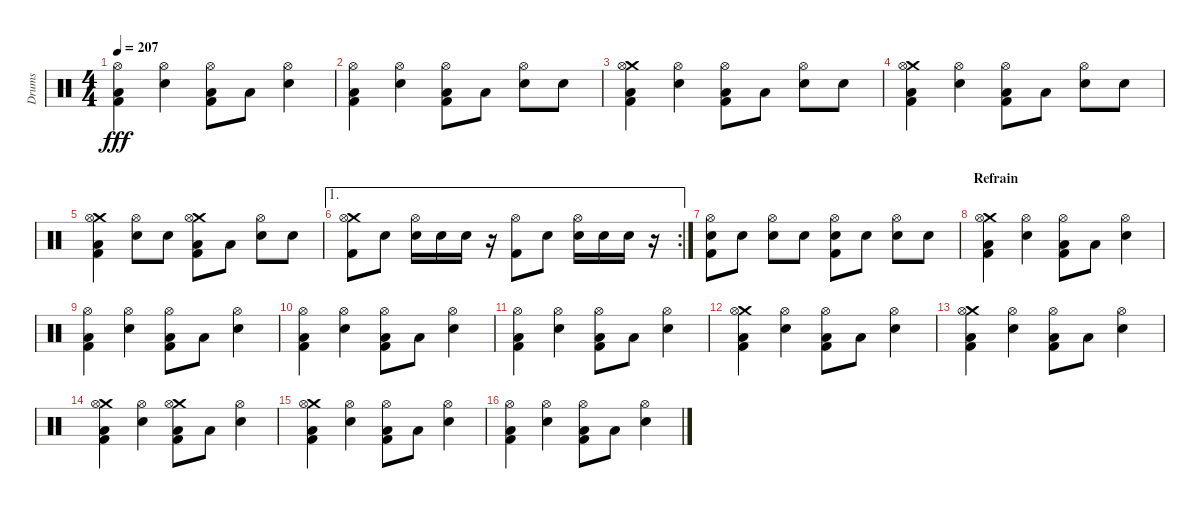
\track ("Drums" "Drums") {instrument percussion}
\staff {score}
\articulation defaults
\ts (4 4)
\tempo 207
\clef neutral
\ks c
("Hi-Hat (open)" "Low Floor Tom (hit)" "Kick (hit) 2").4{dy fff} ("Hi-Hat (open)" "Snare (hit) 2").4 ("Hi-Hat (open)" "Low Floor Tom (hit)" "Kick (hit) 2").8 "Low Floor Tom (hit)".8 ("Hi-Hat (open)" "Snare (hit) 2").4 |
("Hi-Hat (open)" "Low Floor Tom (hit)" "Kick (hit) 2").4 ("Hi-Hat (open)" "Snare (hit) 2").4 ("Hi-Hat (open)" "Low Floor Tom (hit)" "Kick (hit) 2").8 "Low Floor Tom (hit)".8 ("Hi-Hat (open)" "Snare (hit) 2").8 "Snare (hit) 2".8 |
("Crash medium (hit)" "Hi-Hat (open)" "Low Floor Tom (hit)" "Kick (hit) 2").4 ("Hi-Hat (open)" "Snare (hit) 2").4 ("Hi-Hat (open)" "Low Floor Tom (hit)" "Kick (hit) 2").8 "Low Floor Tom (hit)".8 ("Hi-Hat (open)" "Snare (hit) 2").8 "Snare (hit) 2".8 |
("Crash medium (hit)" "Hi-Hat (open)" "Low Floor Tom (hit)" "Kick (hit) 2").4 ("Hi-Hat (open)" "Snare (hit) 2").4 ("Hi-Hat (open)" "Low Floor Tom (hit)" "Kick (hit) 2").8 "Low Floor Tom (hit)".8 ("Hi-Hat (open)" "Snare (hit) 2").8 "Snare (hit) 2".8 |
("Crash medium (hit)" "Hi-Hat (open)" "Low Floor Tom (hit)" "Kick (hit) 2").4 ("Hi-Hat (open)" "Snare (hit) 2").8 "Snare (hit) 2".8 ("Crash medium (hit)" "Hi-Hat (open)" "Low Floor Tom (hit)" "Kick (hit) 2").8 "Low Floor Tom (hit)".8 ("Hi-Hat (open)" "Snare (hit) 2").8 "Snare (hit) 2".8 |
\ae 1
\rc 2
("Crash medium (hit)" "Hi-Hat (open)" "Kick (hit) 2").8 "Snare (hit) 2".8 ("Hi-Hat (open)" "Snare (hit) 2").16 "Snare (hit) 2".16 "Snare (hit) 2".16 r.16 ("Hi-Hat (open)" "Kick (hit) 2").8 "Snare (hit) 2".8 ("Hi-Hat (open)" "Snare (hit) 2").16 "Snare (hit) 2".16 "Snare (hit) 2".16 r.16 |
("Hi-Hat (open)" "Snare (hit) 2" "Kick (hit) 2").8 "Snare (hit) 2".8 ("Hi-Hat (open)" "Snare (hit) 2").8 "Snare (hit) 2".8 ("Hi-Hat (open)" "Snare (hit) 2" "Kick (hit) 2").8 "Snare (hit) 2".8 ("Hi-Hat (open)" "Snare (hit) 2").8 "Snare (hit) 2".8 |
\section ("" "Refrain")
("Crash medium (hit)" "Hi-Hat (open)" "Low Floor Tom (hit)" "Kick (hit) 2").4 ("Hi-Hat (open)" "Snare (hit) 2").4 ("Hi-Hat (open)" "Low Floor Tom (hit)" "Kick (hit) 2").8 "Low Floor Tom (hit)".8 ("Hi-Hat (open)" "Snare (hit) 2").4 |
("Hi-Hat (open)" "Low Floor Tom (hit)" "Kick (hit) 2").4 ("Hi-Hat (open)" "Snare (hit) 2").4 ("Hi-Hat (open)" "Low Floor Tom (hit)" "Kick (hit) 2").8 "Low Floor Tom (hit)".8 ("Hi-Hat (open)" "Snare (hit) 2").4 |
("Hi-Hat (open)" "Low Floor Tom (hit)" "Kick (hit) 2").4 ("Hi-Hat (open)" "Snare (hit) 2").4 ("Hi-Hat (open)" "Low Floor Tom (hit)" "Kick (hit) 2").8 "Low Floor Tom (hit)".8 ("Hi-Hat (open)" "Snare (hit) 2").4 |
("Hi-Hat (open)" "Low Floor Tom (hit)" "Kick (hit) 2").4 ("Hi-Hat (open)" "Snare (hit) 2").4 ("Hi-Hat (open)" "Low Floor Tom (hit)" "Kick (hit) 2").8 "Low Floor Tom (hit)".8 ("Hi-Hat (open)" "Snare (hit) 2").4 |
("Crash medium (hit)" "Hi-Hat (open)" "Low Floor Tom (hit)" "Kick (hit) 2").4 ("Hi-Hat (open)" "Snare (hit) 2").4 ("Hi-Hat (open)" "Low Floor Tom (hit)" "Kick (hit) 2").8 "Low Floor Tom (hit)".8 ("Hi-Hat (open)" "Snare (hit) 2").4 |
("Crash medium (hit)" "Hi-Hat (open)" "Low Floor Tom (hit)" "Kick (hit) 2").4 ("Hi-Hat (open)" "Snare (hit) 2").4 ("Hi-Hat (open)" "Low Floor Tom (hit)" "Kick (hit) 2").8 "Low Floor Tom (hit)".8 ("Hi-Hat (open)" "Snare (hit) 2").4 |
("Crash medium (hit)" "Hi-Hat (open)" "Low Floor Tom (hit)" "Kick (hit) 2").4 ("Hi-Hat (open)" "Snare (hit) 2").4 ("Crash medium (hit)" "Hi-Hat (open)" "Low Floor Tom (hit)" "Kick (hit) 2").8 "Low Floor Tom (hit)".8 ("Hi-Hat (open)" "Snare (hit) 2").4 |
("Crash medium (hit)" "Hi-Hat (open)" "Low Floor Tom (hit)" "Kick (hit) 2").4 ("Hi-Hat (open)" "Snare (hit) 2").4 ("Hi-Hat (open)" "Low Floor Tom (hit)" "Kick (hit) 2").8 "Low Floor Tom (hit)".8 ("Hi-Hat (open)" "Snare (hit) 2").4 |
("Hi-Hat (open)" "Low Floor Tom (hit)" "Kick (hit) 2").4 ("Hi-Hat (open)" "Snare (hit) 2").4 ("Hi-Hat (open)" "Low Floor Tom (hit)" "Kick (hit) 2").8 "Low Floor Tom (hit)".8 ("Hi-Hat (open)" "Snare (hit) 2").4
